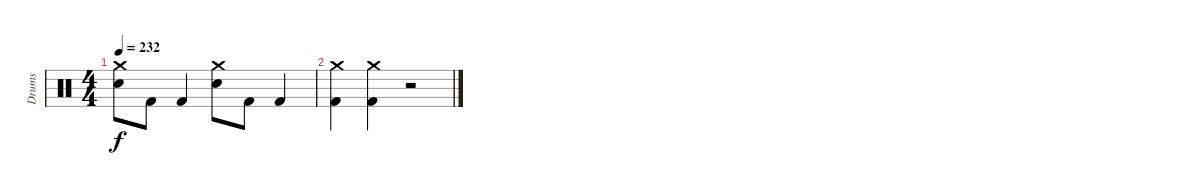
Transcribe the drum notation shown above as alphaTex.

\track ("Drums" "Drums") {instrument percussion}
\staff {score}
\articulation defaults
\ts (4 4)
\tempo 232
\clef neutral
\ks c
("Electric Snare (hit)" "Crash medium (hit)").8{dy f} "Kick (hit) 2".8 "Kick (hit) 2".4 ("Electric Snare (hit)" "Crash medium (hit)").8 "Kick (hit) 2".8 "Kick (hit) 2".4 |
("Kick (hit) 2" "Crash medium (hit)").4 ("Kick (hit) 2" "Crash medium (hit)").4 r.2
